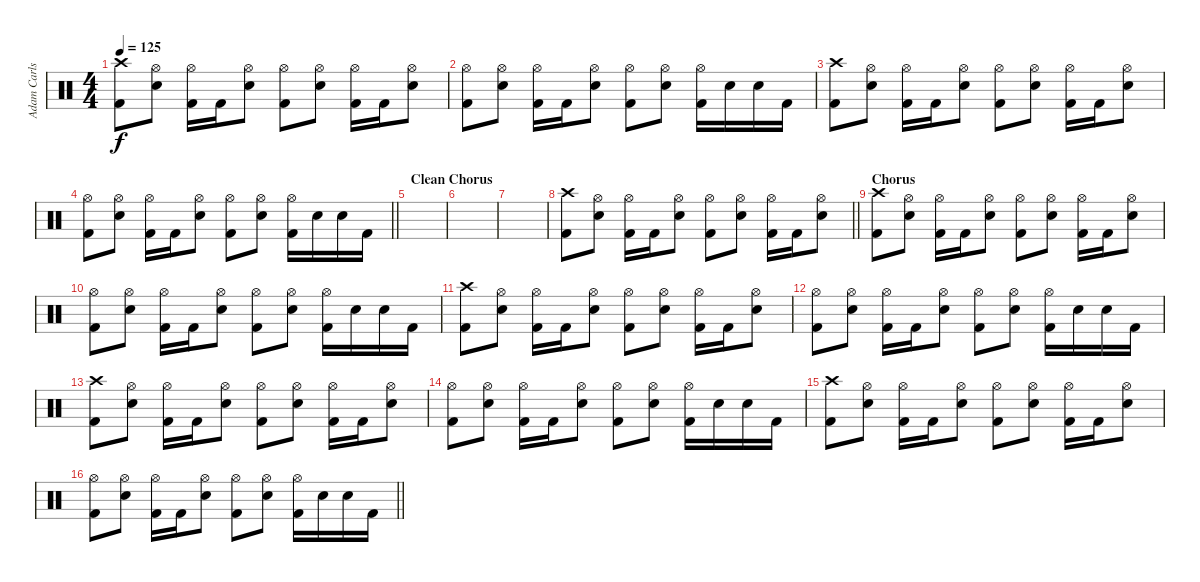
\track ("Adam Carlson" "Adam Carls") {instrument percussion}
\staff {score}
\articulation defaults
\ts (4 4)
\tempo 125
\clef neutral
\ks c
("Crash high (hit)" "Kick (hit) 2").8{dy f} ("Hi-Hat (open)" "Electric Snare (hit)").8 ("Hi-Hat (open)" "Kick (hit) 2").16 "Kick (hit) 2".16 ("Hi-Hat (open)" "Electric Snare (hit)").8 ("Hi-Hat (open)" "Kick (hit) 2").8 ("Hi-Hat (open)" "Electric Snare (hit)").8 ("Hi-Hat (open)" "Kick (hit) 2").16 "Kick (hit) 2".16 ("Hi-Hat (open)" "Electric Snare (hit)").8 |
("Hi-Hat (open)" "Kick (hit) 2").8 ("Hi-Hat (open)" "Electric Snare (hit)").8 ("Hi-Hat (open)" "Kick (hit) 2").16 "Kick (hit) 2".16 ("Hi-Hat (open)" "Electric Snare (hit)").8 ("Hi-Hat (open)" "Kick (hit) 2").8 ("Hi-Hat (open)" "Electric Snare (hit)").8 ("Hi-Hat (open)" "Kick (hit) 2").16 "Electric Snare (hit)".16 "Electric Snare (hit)".16 "Kick (hit) 2".16 |
("Crash high (hit)" "Kick (hit) 2").8 ("Hi-Hat (open)" "Electric Snare (hit)").8 ("Hi-Hat (open)" "Kick (hit) 2").16 "Kick (hit) 2".16 ("Hi-Hat (open)" "Electric Snare (hit)").8 ("Hi-Hat (open)" "Kick (hit) 2").8 ("Hi-Hat (open)" "Electric Snare (hit)").8 ("Hi-Hat (open)" "Kick (hit) 2").16 "Kick (hit) 2".16 ("Hi-Hat (open)" "Electric Snare (hit)").8 |
\barLineRight lightlight
("Hi-Hat (open)" "Kick (hit) 2").8 ("Hi-Hat (open)" "Electric Snare (hit)").8 ("Hi-Hat (open)" "Kick (hit) 2").16 "Kick (hit) 2".16 ("Hi-Hat (open)" "Electric Snare (hit)").8 ("Hi-Hat (open)" "Kick (hit) 2").8 ("Hi-Hat (open)" "Electric Snare (hit)").8 ("Hi-Hat (open)" "Kick (hit) 2").16 "Electric Snare (hit)".16 "Electric Snare (hit)".16 "Kick (hit) 2".16 |
\section ("" "Clean Chorus")
|
|
|
\barLineRight lightlight
("Crash high (hit)" "Kick (hit) 2").8 ("Hi-Hat (open)" "Electric Snare (hit)").8 ("Hi-Hat (open)" "Kick (hit) 2").16 "Kick (hit) 2".16 ("Hi-Hat (open)" "Electric Snare (hit)").8 ("Hi-Hat (open)" "Kick (hit) 2").8 ("Hi-Hat (open)" "Electric Snare (hit)").8 ("Hi-Hat (open)" "Kick (hit) 2").16 "Kick (hit) 2".16 ("Hi-Hat (open)" "Electric Snare (hit)").8 |
\section ("" "Chorus")
("Crash high (hit)" "Kick (hit) 2").8 ("Hi-Hat (open)" "Electric Snare (hit)").8 ("Hi-Hat (open)" "Kick (hit) 2").16 "Kick (hit) 2".16 ("Hi-Hat (open)" "Electric Snare (hit)").8 ("Hi-Hat (open)" "Kick (hit) 2").8 ("Hi-Hat (open)" "Electric Snare (hit)").8 ("Hi-Hat (open)" "Kick (hit) 2").16 "Kick (hit) 2".16 ("Hi-Hat (open)" "Electric Snare (hit)").8 |
("Hi-Hat (open)" "Kick (hit) 2").8 ("Hi-Hat (open)" "Electric Snare (hit)").8 ("Hi-Hat (open)" "Kick (hit) 2").16 "Kick (hit) 2".16 ("Hi-Hat (open)" "Electric Snare (hit)").8 ("Hi-Hat (open)" "Kick (hit) 2").8 ("Hi-Hat (open)" "Electric Snare (hit)").8 ("Hi-Hat (open)" "Kick (hit) 2").16 "Electric Snare (hit)".16 "Electric Snare (hit)".16 "Kick (hit) 2".16 |
("Crash high (hit)" "Kick (hit) 2").8 ("Hi-Hat (open)" "Electric Snare (hit)").8 ("Hi-Hat (open)" "Kick (hit) 2").16 "Kick (hit) 2".16 ("Hi-Hat (open)" "Electric Snare (hit)").8 ("Hi-Hat (open)" "Kick (hit) 2").8 ("Hi-Hat (open)" "Electric Snare (hit)").8 ("Hi-Hat (open)" "Kick (hit) 2").16 "Kick (hit) 2".16 ("Hi-Hat (open)" "Electric Snare (hit)").8 |
("Hi-Hat (open)" "Kick (hit) 2").8 ("Hi-Hat (open)" "Electric Snare (hit)").8 ("Hi-Hat (open)" "Kick (hit) 2").16 "Kick (hit) 2".16 ("Hi-Hat (open)" "Electric Snare (hit)").8 ("Hi-Hat (open)" "Kick (hit) 2").8 ("Hi-Hat (open)" "Electric Snare (hit)").8 ("Hi-Hat (open)" "Kick (hit) 2").16 "Electric Snare (hit)".16 "Electric Snare (hit)".16 "Kick (hit) 2".16 |
("Crash high (hit)" "Kick (hit) 2").8 ("Hi-Hat (open)" "Electric Snare (hit)").8 ("Hi-Hat (open)" "Kick (hit) 2").16 "Kick (hit) 2".16 ("Hi-Hat (open)" "Electric Snare (hit)").8 ("Hi-Hat (open)" "Kick (hit) 2").8 ("Hi-Hat (open)" "Electric Snare (hit)").8 ("Hi-Hat (open)" "Kick (hit) 2").16 "Kick (hit) 2".16 ("Hi-Hat (open)" "Electric Snare (hit)").8 |
("Hi-Hat (open)" "Kick (hit) 2").8 ("Hi-Hat (open)" "Electric Snare (hit)").8 ("Hi-Hat (open)" "Kick (hit) 2").16 "Kick (hit) 2".16 ("Hi-Hat (open)" "Electric Snare (hit)").8 ("Hi-Hat (open)" "Kick (hit) 2").8 ("Hi-Hat (open)" "Electric Snare (hit)").8 ("Hi-Hat (open)" "Kick (hit) 2").16 "Electric Snare (hit)".16 "Electric Snare (hit)".16 "Kick (hit) 2".16 |
("Crash high (hit)" "Kick (hit) 2").8 ("Hi-Hat (open)" "Electric Snare (hit)").8 ("Hi-Hat (open)" "Kick (hit) 2").16 "Kick (hit) 2".16 ("Hi-Hat (open)" "Electric Snare (hit)").8 ("Hi-Hat (open)" "Kick (hit) 2").8 ("Hi-Hat (open)" "Electric Snare (hit)").8 ("Hi-Hat (open)" "Kick (hit) 2").16 "Kick (hit) 2".16 ("Hi-Hat (open)" "Electric Snare (hit)").8 |
\barLineRight lightlight
("Hi-Hat (open)" "Kick (hit) 2").8 ("Hi-Hat (open)" "Electric Snare (hit)").8 ("Hi-Hat (open)" "Kick (hit) 2").16 "Kick (hit) 2".16 ("Hi-Hat (open)" "Electric Snare (hit)").8 ("Hi-Hat (open)" "Kick (hit) 2").8 ("Hi-Hat (open)" "Electric Snare (hit)").8 ("Hi-Hat (open)" "Kick (hit) 2").16 "Electric Snare (hit)".16 "Electric Snare (hit)".16 "Kick (hit) 2".16
